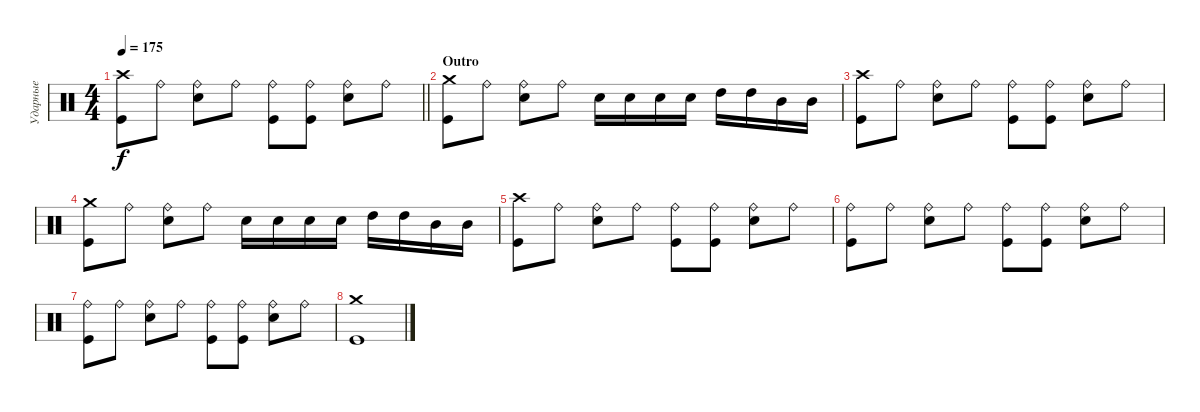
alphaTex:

\track ("Ударные" "Ударные") {instrument percussion}
\staff {score}
\articulation defaults
\ts (4 4)
\tempo 175
\clef neutral
\barLineRight lightlight
\ks c
("Crash high (hit)" "Kick (hit)").8{dy f} "Ride (bell)".8 ("Ride (bell)" "Electric Snare (hit)").8 "Ride (bell)".8 ("Ride (bell)" "Kick (hit)").8 ("Ride (bell)" "Kick (hit)").8 ("Ride (bell)" "Electric Snare (hit)").8 "Ride (bell)".8 |
\section ("" "Outro")
("Crash medium (hit)" "Kick (hit)").8 "Ride (bell)".8 ("Ride (bell)" "Electric Snare (hit)").8 "Ride (bell)".8 "Electric Snare (hit)".16 "Electric Snare (hit)".16 "Electric Snare (hit)".16 "Electric Snare (hit)".16 "High Tom (hit)".16 "High Tom (hit)".16 "Mid Tom (hit)".16 "Mid Tom (hit)".16 |
("Crash high (hit)" "Kick (hit)").8 "Ride (bell)".8 ("Ride (bell)" "Electric Snare (hit)").8 "Ride (bell)".8 ("Ride (bell)" "Kick (hit)").8 ("Ride (bell)" "Kick (hit)").8 ("Ride (bell)" "Electric Snare (hit)").8 "Ride (bell)".8 |
("Crash medium (hit)" "Kick (hit)").8 "Ride (bell)".8 ("Ride (bell)" "Electric Snare (hit)").8 "Ride (bell)".8 "Electric Snare (hit)".16 "Electric Snare (hit)".16 "Electric Snare (hit)".16 "Electric Snare (hit)".16 "High Tom (hit)".16 "High Tom (hit)".16 "Mid Tom (hit)".16 "Mid Tom (hit)".16 |
("Crash high (hit)" "Kick (hit)").8 "Ride (bell)".8 ("Ride (bell)" "Electric Snare (hit)").8 "Ride (bell)".8 ("Ride (bell)" "Kick (hit)").8 ("Ride (bell)" "Kick (hit)").8 ("Ride (bell)" "Electric Snare (hit)").8 "Ride (bell)".8 |
("Ride (bell)" "Kick (hit)").8 "Ride (bell)".8 ("Ride (bell)" "Electric Snare (hit)").8 "Ride (bell)".8 ("Ride (bell)" "Kick (hit)").8 ("Ride (bell)" "Kick (hit)").8 ("Ride (bell)" "Electric Snare (hit)").8 "Ride (bell)".8 |
("Ride (bell)" "Kick (hit)").8 "Ride (bell)".8 ("Ride (bell)" "Electric Snare (hit)").8 "Ride (bell)".8 ("Ride (bell)" "Kick (hit)").8 ("Ride (bell)" "Kick (hit)").8 ("Ride (bell)" "Electric Snare (hit)").8 "Ride (bell)".8 |
("Crash medium (hit)" "Kick (hit)").1
